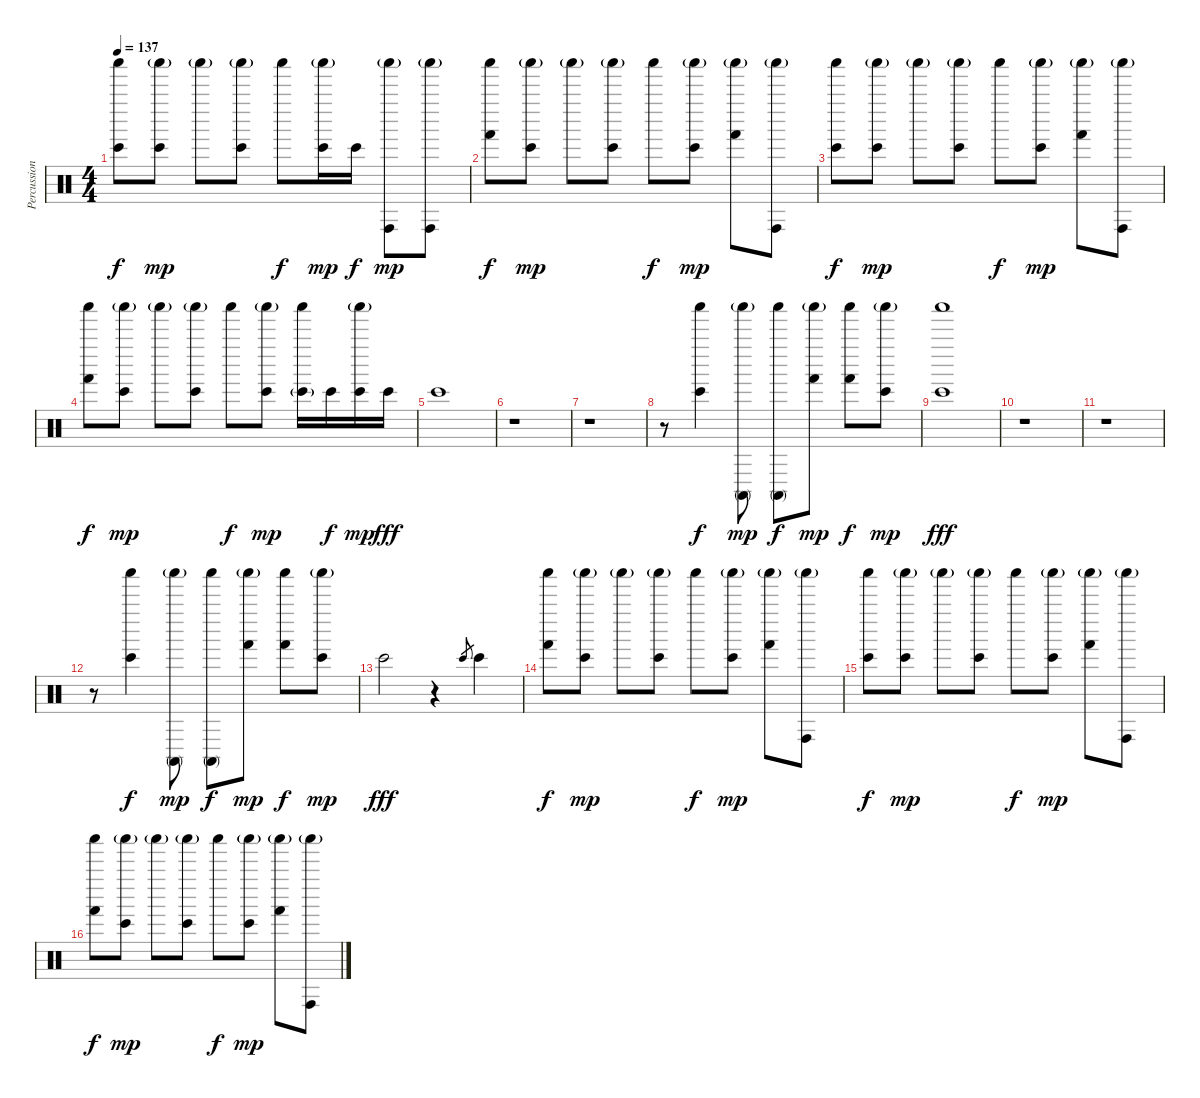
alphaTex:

\track ("Percussions" "Percussion") {instrument percussion}
\staff {score}
\articulation defaults
\ts (4 4)
\tempo 137
\clef neutral
\ks c
("Bongo High (hit)" "Shaker (hit)").8{dy f} ("Bongo High (hit)" "Shaker (hit)"{g}).8{dy mp} "Shaker (hit)"{g}.8 ("Bongo High (hit)" "Shaker (hit)"{g}).8 "Shaker (hit)".8{dy f} ("Bongo High (hit)" "Shaker (hit)"{g}).16{dy mp} "Bongo High (hit)".16{dy f} ("Conga high (hit)" "Shaker (hit)"{g}).8{dy mp} ("Conga high (hit)" "Shaker (hit)"{g}).8 |
("Hand (hit)" "Shaker (hit)").8{dy f} ("Bongo High (hit)" "Shaker (hit)"{g}).8{dy mp} "Shaker (hit)"{g}.8 ("Bongo High (hit)" "Shaker (hit)"{g}).8 "Shaker (hit)".8{dy f} ("Bongo High (hit)" "Shaker (hit)"{g}).8{dy mp} ("Hand (hit)" "Shaker (hit)"{g}).8 ("Conga high (hit)" "Shaker (hit)"{g}).8 |
("Bongo High (hit)" "Shaker (hit)").8{dy f} ("Bongo High (hit)" "Shaker (hit)"{g}).8{dy mp} "Shaker (hit)"{g}.8 ("Bongo High (hit)" "Shaker (hit)"{g}).8 "Shaker (hit)".8{dy f} ("Bongo High (hit)" "Shaker (hit)"{g}).8{dy mp} ("Hand (hit)" "Shaker (hit)"{g}).8 ("Conga high (hit)" "Shaker (hit)"{g}).8 |
("Hand (hit)" "Shaker (hit)").8{dy f} ("Bongo High (hit)" "Shaker (hit)"{g}).8{dy mp} "Shaker (hit)"{g}.8 ("Bongo High (hit)" "Shaker (hit)"{g}).8 "Shaker (hit)".8{dy f} ("Bongo High (hit)" "Shaker (hit)"{g}).8{dy mp} ("Bongo High (hit)"{g} "Shaker (hit)").16 "Bongo High (hit)".16{dy f} ("Bongo High (hit)" "Shaker (hit)"{g}).16{dy mp} "Bongo High (hit)".16{dy fff} |
"Bongo High (hit)".1 |
r.1 |
r.1 |
r.8 ("Bongo High (hit)" "Shaker (hit)").4{dy f} ("Conga high (mute)" "Shaker (hit)"{g}).8{dy mp} ("Conga high (mute)" "Shaker (hit)").8{dy f} ("Hand (hit)" "Shaker (hit)"{g}).8{dy mp} ("Hand (hit)" "Shaker (hit)").8{dy f} ("Bongo High (hit)" "Shaker (hit)"{g}).8{dy mp} |
("Bongo High (hit)" "Shaker (hit)").1{dy fff} |
r.1 |
r.1 |
r.8 ("Bongo High (hit)" "Shaker (hit)").4{dy f} ("Conga high (mute)" "Shaker (hit)"{g}).8{dy mp} ("Conga high (mute)" "Shaker (hit)").8{dy f} ("Hand (hit)" "Shaker (hit)"{g}).8{dy mp} ("Hand (hit)" "Shaker (hit)").8{dy f} ("Bongo High (hit)" "Shaker (hit)"{g}).8{dy mp} |
"Bongo High (hit)".2{dy fff} r.4 "Bongo High (hit)".8{gr} "Bongo High (hit)".4 |
("Hand (hit)" "Shaker (hit)").8{dy f} ("Bongo High (hit)" "Shaker (hit)"{g}).8{dy mp} "Shaker (hit)"{g}.8 ("Bongo High (hit)" "Shaker (hit)"{g}).8 "Shaker (hit)".8{dy f} ("Bongo High (hit)" "Shaker (hit)"{g}).8{dy mp} ("Hand (hit)" "Shaker (hit)"{g}).8 ("Conga high (hit)" "Shaker (hit)"{g}).8 |
("Bongo High (hit)" "Shaker (hit)").8{dy f} ("Bongo High (hit)" "Shaker (hit)"{g}).8{dy mp} "Shaker (hit)"{g}.8 ("Bongo High (hit)" "Shaker (hit)"{g}).8 "Shaker (hit)".8{dy f} ("Bongo High (hit)" "Shaker (hit)"{g}).8{dy mp} ("Hand (hit)" "Shaker (hit)"{g}).8 ("Conga high (hit)" "Shaker (hit)"{g}).8 |
("Hand (hit)" "Shaker (hit)").8{dy f} ("Bongo High (hit)" "Shaker (hit)"{g}).8{dy mp} "Shaker (hit)"{g}.8 ("Bongo High (hit)" "Shaker (hit)"{g}).8 "Shaker (hit)".8{dy f} ("Bongo High (hit)" "Shaker (hit)"{g}).8{dy mp} ("Hand (hit)" "Shaker (hit)"{g}).8 ("Conga high (hit)" "Shaker (hit)"{g}).8
